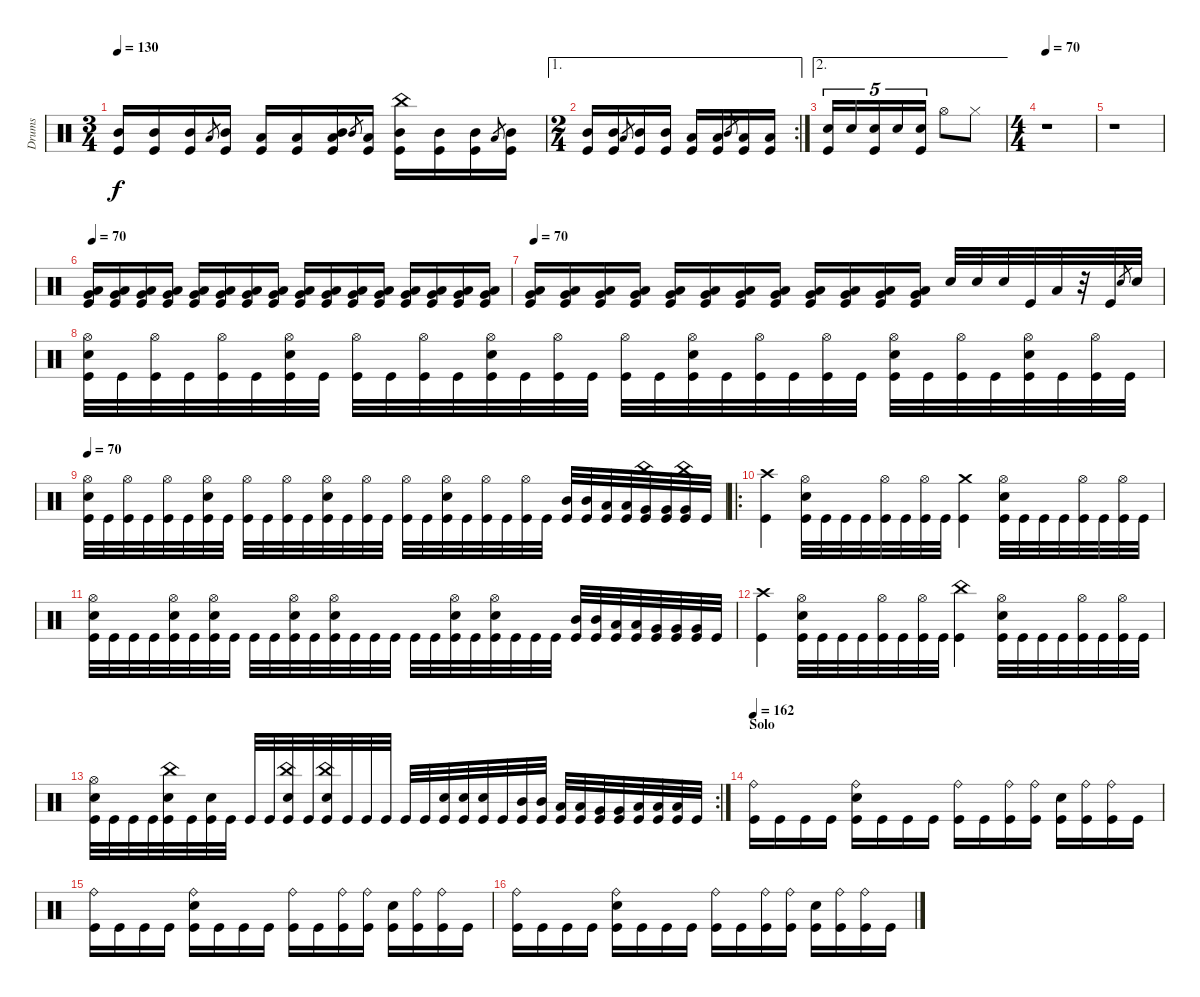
\track ("Drums" "Drums") {instrument percussion}
\staff {score}
\articulation defaults
\ts (3 4)
\tempo 130
\clef neutral
\ks c
("Mid Tom (hit)" "Kick (hit)").16{dy f} ("Mid Tom (hit)" "Kick (hit)").16 ("Mid Tom (hit)" "Kick (hit)").16 "Low Tom (hit)".8{gr} ("Mid Tom (hit)" "Kick (hit)").16 ("Low Tom (hit)" "Kick (hit)").16 ("Low Tom (hit)" "Kick (hit)").16 ("Mid Tom (hit)" "Low Tom (hit)" "Kick (hit)").16 "Mid Tom (hit)".8{gr} ("Low Tom (hit)" "Kick (hit)").16 ("China (hit)" "Mid Tom (hit)" "Kick (hit)").16 ("Mid Tom (hit)" "Kick (hit)").16 ("Mid Tom (hit)" "Kick (hit)").16 "Low Tom (hit)".8{gr} ("Mid Tom (hit)" "Kick (hit)").16 |
\ae 1
\rc 2
\ts (2 4)
("Mid Tom (hit)" "Kick (hit)").16 ("Mid Tom (hit)" "Kick (hit)").16 "Low Tom (hit)".8{gr} ("Mid Tom (hit)" "Kick (hit)").16 ("Mid Tom (hit)" "Kick (hit)").16 ("Low Tom (hit)" "Kick (hit)").16 ("Low Tom (hit)" "Kick (hit)").16 "Mid Tom (hit)".8{gr} ("Low Tom (hit)" "Kick (hit)").16 ("Low Tom (hit)" "Kick (hit)").16 |
\ae 2
("Electric Snare (hit)" "Kick (hit)").16{tu (5 4)} "Electric Snare (hit)".16{tu (5 4)} ("Electric Snare (hit)" "Kick (hit)").16{tu (5 4)} "Electric Snare (hit)".16{tu (5 4)} ("Electric Snare (hit)" "Kick (hit)").16{tu (5 4)} "Hi-Hat (open)".8 "Hi-Hat (closed)".8 |
\ts (4 4)
\tempo 70
r.1{volume 0} |
r.1{volume 16} |
\tempo 70
("Very Low Tom (hit)" "Low Floor Tom (hit)" "Kick (hit)").16 ("Very Low Tom (hit)" "Low Floor Tom (hit)" "Kick (hit)").16 ("Very Low Tom (hit)" "Low Floor Tom (hit)" "Kick (hit)").16 ("Very Low Tom (hit)" "Low Floor Tom (hit)" "Kick (hit)").16 ("Very Low Tom (hit)" "Low Floor Tom (hit)" "Kick (hit)").16 ("Very Low Tom (hit)" "Low Floor Tom (hit)" "Kick (hit)").16 ("Very Low Tom (hit)" "Low Floor Tom (hit)" "Kick (hit)").16 ("Very Low Tom (hit)" "Low Floor Tom (hit)" "Kick (hit)").16 ("Very Low Tom (hit)" "Low Floor Tom (hit)" "Kick (hit)").16 ("Very Low Tom (hit)" "Low Floor Tom (hit)" "Kick (hit)").16 ("Very Low Tom (hit)" "Low Floor Tom (hit)" "Kick (hit)").16 ("Very Low Tom (hit)" "Low Floor Tom (hit)" "Kick (hit)").16 ("Very Low Tom (hit)" "Low Floor Tom (hit)" "Kick (hit)").16 ("Very Low Tom (hit)" "Low Floor Tom (hit)" "Kick (hit)").16 ("Very Low Tom (hit)" "Low Floor Tom (hit)" "Kick (hit)").16 ("Very Low Tom (hit)" "Low Floor Tom (hit)" "Kick (hit)").16 |
\tempo 70
("Very Low Tom (hit)" "Low Floor Tom (hit)" "Kick (hit)").16 ("Very Low Tom (hit)" "Low Floor Tom (hit)" "Kick (hit)").16 ("Very Low Tom (hit)" "Low Floor Tom (hit)" "Kick (hit)").16 ("Very Low Tom (hit)" "Low Floor Tom (hit)" "Kick (hit)").16 ("Very Low Tom (hit)" "Low Floor Tom (hit)" "Kick (hit)").16 ("Very Low Tom (hit)" "Low Floor Tom (hit)" "Kick (hit)").16 ("Very Low Tom (hit)" "Low Floor Tom (hit)" "Kick (hit)").16 ("Very Low Tom (hit)" "Low Floor Tom (hit)" "Kick (hit)").16 ("Very Low Tom (hit)" "Low Floor Tom (hit)" "Kick (hit)").16 ("Very Low Tom (hit)" "Low Floor Tom (hit)" "Kick (hit)").16 ("Very Low Tom (hit)" "Low Floor Tom (hit)" "Kick (hit)").16 ("Very Low Tom (hit)" "Low Floor Tom (hit)" "Kick (hit)").16 "Electric Snare (hit)".32 "Electric Snare (hit)".32 "Electric Snare (hit)".32 "Kick (hit)".32 "Low Tom (hit)".32 r.32 "Kick (hit)".32 "Electric Snare (hit)".8{gr} "Electric Snare (hit)".32 |
("Hi-Hat (open)" "Electric Snare (hit)" "Kick (hit)").32 "Kick (hit)".32 ("Hi-Hat (open)" "Kick (hit)").32 "Kick (hit)".32 ("Hi-Hat (open)" "Kick (hit)").32 "Kick (hit)".32 ("Hi-Hat (open)" "Electric Snare (hit)" "Kick (hit)").32 "Kick (hit)".32 ("Hi-Hat (open)" "Kick (hit)").32 "Kick (hit)".32 ("Hi-Hat (open)" "Kick (hit)").32 "Kick (hit)".32 ("Hi-Hat (open)" "Electric Snare (hit)" "Kick (hit)").32 "Kick (hit)".32 ("Hi-Hat (open)" "Kick (hit)").32 "Kick (hit)".32 ("Hi-Hat (open)" "Kick (hit)").32 "Kick (hit)".32 ("Hi-Hat (open)" "Electric Snare (hit)" "Kick (hit)").32 "Kick (hit)".32 ("Hi-Hat (open)" "Kick (hit)").32 "Kick (hit)".32 ("Hi-Hat (open)" "Kick (hit)").32 "Kick (hit)".32 ("Hi-Hat (open)" "Electric Snare (hit)" "Kick (hit)").32 "Kick (hit)".32 ("Hi-Hat (open)" "Kick (hit)").32 "Kick (hit)".32 ("Hi-Hat (open)" "Electric Snare (hit)" "Kick (hit)").32 "Kick (hit)".32 ("Hi-Hat (open)" "Kick (hit)").32 "Kick (hit)".32 |
\tempo 70
("Hi-Hat (open)" "Electric Snare (hit)" "Kick (hit)").32 "Kick (hit)".32 ("Hi-Hat (open)" "Kick (hit)").32 "Kick (hit)".32 ("Hi-Hat (open)" "Kick (hit)").32 "Kick (hit)".32 ("Hi-Hat (open)" "Electric Snare (hit)" "Kick (hit)").32 "Kick (hit)".32 ("Hi-Hat (open)" "Kick (hit)").32 "Kick (hit)".32 ("Hi-Hat (open)" "Kick (hit)").32 "Kick (hit)".32 ("Hi-Hat (open)" "Electric Snare (hit)" "Kick (hit)").32 "Kick (hit)".32 ("Hi-Hat (open)" "Kick (hit)").32 "Kick (hit)".32 ("Hi-Hat (open)" "Kick (hit)").32 "Kick (hit)".32 ("Hi-Hat (open)" "Electric Snare (hit)" "Kick (hit)").32 "Kick (hit)".32 ("Hi-Hat (open)" "Kick (hit)").32 "Kick (hit)".32 ("Hi-Hat (open)" "Kick (hit)").32 "Kick (hit)".32 ("Mid Tom (hit)" "Kick (hit)").32 ("Mid Tom (hit)" "Kick (hit)").32 ("Low Tom (hit)" "Kick (hit)").32 ("Low Tom (hit)" "Kick (hit)").32 ("China (hit)" "Very Low Tom (hit)" "Kick (hit)").32 ("Very Low Tom (hit)" "Kick (hit)").32 ("China (hit)" "Very Low Tom (hit)" "Kick (hit)").32 "Kick (hit)".32 |
\ro
("Crash high (hit)" "Kick (hit)").4 ("Hi-Hat (open)" "Electric Snare (hit)" "Kick (hit)").32 "Kick (hit)".32 "Kick (hit)".32 "Kick (hit)".32 ("Hi-Hat (open)" "Kick (hit)").32 "Kick (hit)".32 ("Hi-Hat (open)" "Kick (hit)").32 "Kick (hit)".32 ("Crash medium (hit)" "Kick (hit)").4 ("Hi-Hat (open)" "Electric Snare (hit)" "Kick (hit)").32 "Kick (hit)".32 "Kick (hit)".32 "Kick (hit)".32 ("Hi-Hat (open)" "Kick (hit)").32 "Kick (hit)".32 ("Hi-Hat (open)" "Kick (hit)").32 "Kick (hit)".32 |
("Hi-Hat (open)" "Electric Snare (hit)" "Kick (hit)").32 "Kick (hit)".32 "Kick (hit)".32 "Kick (hit)".32 ("Hi-Hat (open)" "Electric Snare (hit)" "Kick (hit)").32 "Kick (hit)".32 ("Hi-Hat (open)" "Electric Snare (hit)" "Kick (hit)").32 "Kick (hit)".32 "Kick (hit)".32 "Kick (hit)".32 ("Hi-Hat (open)" "Electric Snare (hit)" "Kick (hit)").32 "Kick (hit)".32 ("Hi-Hat (open)" "Electric Snare (hit)" "Kick (hit)").32 "Kick (hit)".32 "Kick (hit)".32 "Kick (hit)".32 "Kick (hit)".32 "Kick (hit)".32 ("Hi-Hat (open)" "Electric Snare (hit)" "Kick (hit)").32 "Kick (hit)".32 ("Hi-Hat (open)" "Electric Snare (hit)" "Kick (hit)").32 "Kick (hit)".32 "Kick (hit)".32 "Kick (hit)".32 ("Mid Tom (hit)" "Kick (hit)").32 ("Mid Tom (hit)" "Kick (hit)").32 ("Low Tom (hit)" "Kick (hit)").32 ("Low Tom (hit)" "Kick (hit)").32 ("Very Low Tom (hit)" "Kick (hit)").32 ("Very Low Tom (hit)" "Kick (hit)").32 ("Very Low Tom (hit)" "Kick (hit)").32 "Kick (hit)".32 |
("Crash high (hit)" "Kick (hit)").4 ("Hi-Hat (open)" "Electric Snare (hit)" "Kick (hit)").32 "Kick (hit)".32 "Kick (hit)".32 "Kick (hit)".32 ("Hi-Hat (open)" "Kick (hit)").32 "Kick (hit)".32 ("Hi-Hat (open)" "Kick (hit)").32 "Kick (hit)".32 ("China (hit)" "Kick (hit)").4 ("Hi-Hat (open)" "Electric Snare (hit)" "Kick (hit)").32 "Kick (hit)".32 "Kick (hit)".32 "Kick (hit)".32 ("Hi-Hat (open)" "Kick (hit)").32 "Kick (hit)".32 ("Hi-Hat (open)" "Kick (hit)").32 "Kick (hit)".32 |
\rc 2
("Hi-Hat (open)" "Electric Snare (hit)" "Kick (hit)").32 "Kick (hit)".32 "Kick (hit)".32 "Kick (hit)".32 ("China (hit)" "Electric Snare (hit)" "Kick (hit)").32 "Kick (hit)".32 ("Electric Snare (hit)" "Kick (hit)").32 "Kick (hit)".32 "Kick (hit)".32 "Kick (hit)".32 ("China (hit)" "Electric Snare (hit)" "Kick (hit)").32 "Kick (hit)".32 ("China (hit)" "Electric Snare (hit)" "Kick (hit)").32 "Kick (hit)".32 "Kick (hit)".32 "Kick (hit)".32 "Kick (hit)".32 "Kick (hit)".32 ("Electric Snare (hit)" "Kick (hit)").32 ("Electric Snare (hit)" "Kick (hit)").32 ("Electric Snare (hit)" "Kick (hit)").32 "Kick (hit)".32 ("Mid Tom (hit)" "Kick (hit)").32 ("Mid Tom (hit)" "Kick (hit)").32 ("Low Tom (hit)" "Kick (hit)").32 ("Low Tom (hit)" "Kick (hit)").32 ("Very Low Tom (hit)" "Kick (hit)").32 ("Very Low Tom (hit)" "Kick (hit)").32 ("Low Floor Tom (hit)" "Kick (hit)").32 ("Low Floor Tom (hit)" "Kick (hit)").32 ("Low Floor Tom (hit)" "Kick (hit)").32 "Kick (hit)".32 |
\section ("" "Solo")
\tempo 162
("Ride (bell)" "Kick (hit)").16 "Kick (hit)".16 "Kick (hit)".16 "Kick (hit)".16 ("Ride (bell)" "Electric Snare (hit)" "Kick (hit)").16 "Kick (hit)".16 "Kick (hit)".16 "Kick (hit)".16 ("Ride (bell)" "Kick (hit)").16 "Kick (hit)".16 ("Ride (bell)" "Kick (hit)").16 ("Ride (bell)" "Kick (hit)").16 ("Electric Snare (hit)" "Kick (hit)").16 ("Ride (bell)" "Kick (hit)").16 ("Ride (bell)" "Kick (hit)").16 "Kick (hit)".16 |
("Ride (bell)" "Kick (hit)").16 "Kick (hit)".16 "Kick (hit)".16 "Kick (hit)".16 ("Ride (bell)" "Electric Snare (hit)" "Kick (hit)").16 "Kick (hit)".16 "Kick (hit)".16 "Kick (hit)".16 ("Ride (bell)" "Kick (hit)").16 "Kick (hit)".16 ("Ride (bell)" "Kick (hit)").16 ("Ride (bell)" "Kick (hit)").16 ("Electric Snare (hit)" "Kick (hit)").16 ("Ride (bell)" "Kick (hit)").16 ("Ride (bell)" "Kick (hit)").16 "Kick (hit)".16 |
("Ride (bell)" "Kick (hit)").16 "Kick (hit)".16 "Kick (hit)".16 "Kick (hit)".16 ("Ride (bell)" "Electric Snare (hit)" "Kick (hit)").16 "Kick (hit)".16 "Kick (hit)".16 "Kick (hit)".16 ("Ride (bell)" "Kick (hit)").16 "Kick (hit)".16 ("Ride (bell)" "Kick (hit)").16 ("Ride (bell)" "Kick (hit)").16 ("Electric Snare (hit)" "Kick (hit)").16 ("Ride (bell)" "Kick (hit)").16 ("Ride (bell)" "Kick (hit)").16 "Kick (hit)".16
